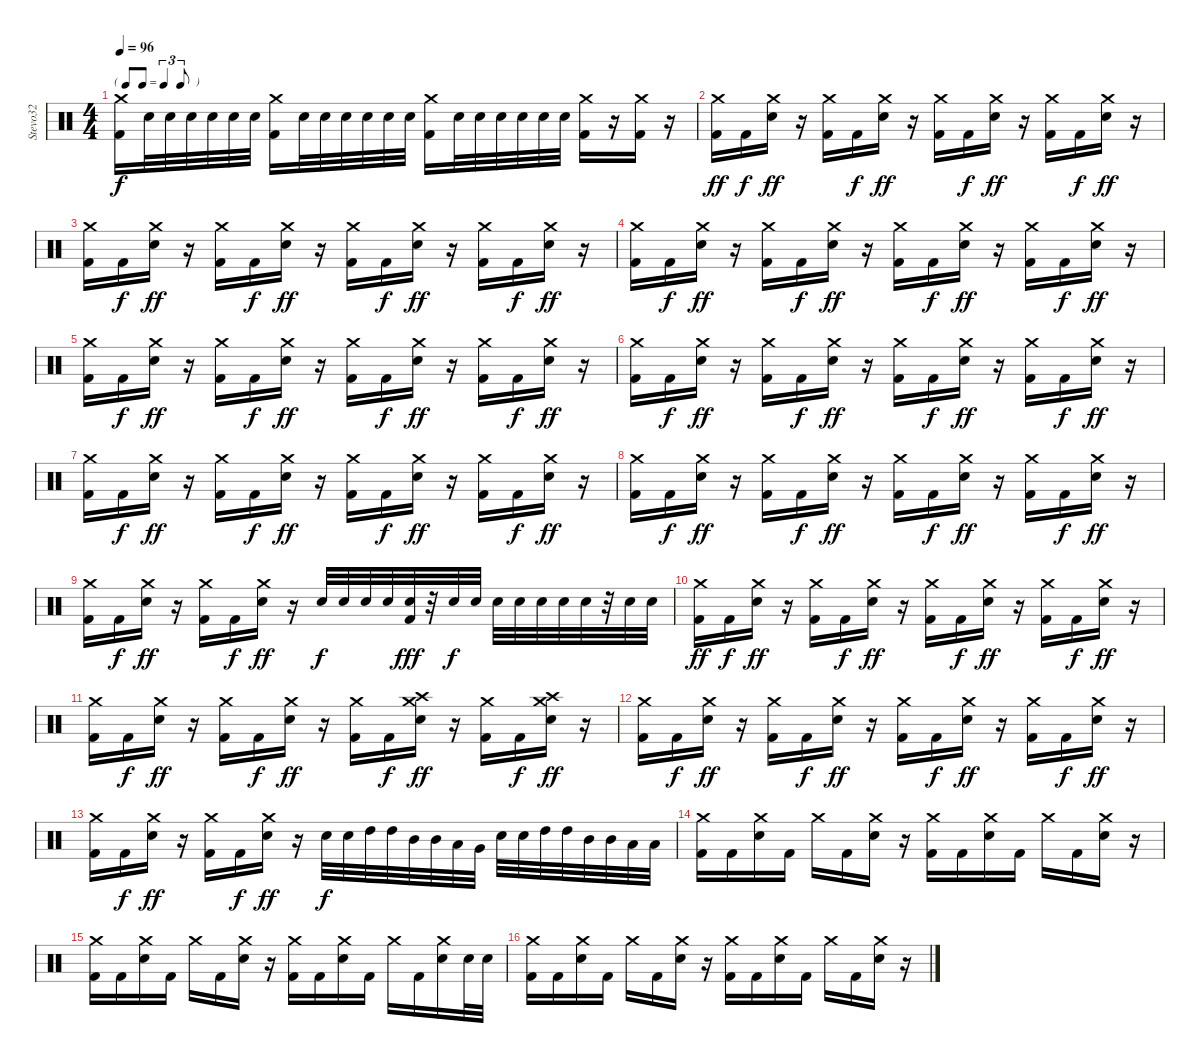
\track ("Stevo32" "Stevo32") {instrument percussion}
\staff {score}
\articulation defaults
\ts (4 4)
\tf triplet8th
\tempo 96
\clef neutral
\ks c
("Crash medium (hit)" "Kick (hit) 2").16{dy f} "Electric Snare (hit)".32 "Electric Snare (hit)".32 "Electric Snare (hit)".32 "Electric Snare (hit)".32 "Electric Snare (hit)".32 "Electric Snare (hit)".32 ("Crash medium (hit)" "Kick (hit) 2").16 "Electric Snare (hit)".32 "Electric Snare (hit)".32 "Electric Snare (hit)".32 "Electric Snare (hit)".32 "Electric Snare (hit)".32 "Electric Snare (hit)".32 ("Crash medium (hit)" "Kick (hit) 2").16 "Electric Snare (hit)".32 "Electric Snare (hit)".32 "Electric Snare (hit)".32 "Electric Snare (hit)".32 "Electric Snare (hit)".32 "Electric Snare (hit)".32 ("Kick (hit) 2" "Crash medium (hit)").16 r.16 ("Kick (hit) 2" "Crash medium (hit)").16 r.16 |
("Crash medium (hit)" "Kick (hit) 2").16{dy ff} "Kick (hit) 2".16{dy f} ("Crash medium (hit)" "Electric Snare (hit)").16{dy ff} r.16 ("Crash medium (hit)" "Kick (hit) 2").16 "Kick (hit) 2".16{dy f} ("Crash medium (hit)" "Electric Snare (hit)").16{dy ff} r.16 ("Crash medium (hit)" "Kick (hit) 2").16 "Kick (hit) 2".16{dy f} ("Crash medium (hit)" "Electric Snare (hit)").16{dy ff} r.16 ("Crash medium (hit)" "Kick (hit) 2").16 "Kick (hit) 2".16{dy f} ("Crash medium (hit)" "Electric Snare (hit)").16{dy ff} r.16 |
("Crash medium (hit)" "Kick (hit) 2").16 "Kick (hit) 2".16{dy f} ("Crash medium (hit)" "Electric Snare (hit)").16{dy ff} r.16 ("Crash medium (hit)" "Kick (hit) 2").16 "Kick (hit) 2".16{dy f} ("Crash medium (hit)" "Electric Snare (hit)").16{dy ff} r.16 ("Crash medium (hit)" "Kick (hit) 2").16 "Kick (hit) 2".16{dy f} ("Crash medium (hit)" "Electric Snare (hit)").16{dy ff} r.16 ("Crash medium (hit)" "Kick (hit) 2").16 "Kick (hit) 2".16{dy f} ("Crash medium (hit)" "Electric Snare (hit)").16{dy ff} r.16 |
("Crash medium (hit)" "Kick (hit) 2").16 "Kick (hit) 2".16{dy f} ("Crash medium (hit)" "Electric Snare (hit)").16{dy ff} r.16 ("Crash medium (hit)" "Kick (hit) 2").16 "Kick (hit) 2".16{dy f} ("Crash medium (hit)" "Electric Snare (hit)").16{dy ff} r.16 ("Crash medium (hit)" "Kick (hit) 2").16 "Kick (hit) 2".16{dy f} ("Crash medium (hit)" "Electric Snare (hit)").16{dy ff} r.16 ("Crash medium (hit)" "Kick (hit) 2").16 "Kick (hit) 2".16{dy f} ("Crash medium (hit)" "Electric Snare (hit)").16{dy ff} r.16 |
("Crash medium (hit)" "Kick (hit) 2").16 "Kick (hit) 2".16{dy f} ("Crash medium (hit)" "Electric Snare (hit)").16{dy ff} r.16 ("Crash medium (hit)" "Kick (hit) 2").16 "Kick (hit) 2".16{dy f} ("Crash medium (hit)" "Electric Snare (hit)").16{dy ff} r.16 ("Crash medium (hit)" "Kick (hit) 2").16 "Kick (hit) 2".16{dy f} ("Crash medium (hit)" "Electric Snare (hit)").16{dy ff} r.16 ("Crash medium (hit)" "Kick (hit) 2").16 "Kick (hit) 2".16{dy f} ("Crash medium (hit)" "Electric Snare (hit)").16{dy ff} r.16 |
("Crash medium (hit)" "Kick (hit) 2").16 "Kick (hit) 2".16{dy f} ("Crash medium (hit)" "Electric Snare (hit)").16{dy ff} r.16 ("Crash medium (hit)" "Kick (hit) 2").16 "Kick (hit) 2".16{dy f} ("Crash medium (hit)" "Electric Snare (hit)").16{dy ff} r.16 ("Crash medium (hit)" "Kick (hit) 2").16 "Kick (hit) 2".16{dy f} ("Crash medium (hit)" "Electric Snare (hit)").16{dy ff} r.16 ("Crash medium (hit)" "Kick (hit) 2").16 "Kick (hit) 2".16{dy f} ("Crash medium (hit)" "Electric Snare (hit)").16{dy ff} r.16 |
("Crash medium (hit)" "Kick (hit) 2").16 "Kick (hit) 2".16{dy f} ("Crash medium (hit)" "Electric Snare (hit)").16{dy ff} r.16 ("Crash medium (hit)" "Kick (hit) 2").16 "Kick (hit) 2".16{dy f} ("Crash medium (hit)" "Electric Snare (hit)").16{dy ff} r.16 ("Crash medium (hit)" "Kick (hit) 2").16 "Kick (hit) 2".16{dy f} ("Crash medium (hit)" "Electric Snare (hit)").16{dy ff} r.16 ("Crash medium (hit)" "Kick (hit) 2").16 "Kick (hit) 2".16{dy f} ("Crash medium (hit)" "Electric Snare (hit)").16{dy ff} r.16 |
("Crash medium (hit)" "Kick (hit) 2").16 "Kick (hit) 2".16{dy f} ("Crash medium (hit)" "Electric Snare (hit)").16{dy ff} r.16 ("Crash medium (hit)" "Kick (hit) 2").16 "Kick (hit) 2".16{dy f} ("Crash medium (hit)" "Electric Snare (hit)").16{dy ff} r.16 ("Crash medium (hit)" "Kick (hit) 2").16 "Kick (hit) 2".16{dy f} ("Crash medium (hit)" "Electric Snare (hit)").16{dy ff} r.16 ("Crash medium (hit)" "Kick (hit) 2").16 "Kick (hit) 2".16{dy f} ("Crash medium (hit)" "Electric Snare (hit)").16{dy ff} r.16 |
("Crash medium (hit)" "Kick (hit) 2").16 "Kick (hit) 2".16{dy f} ("Electric Snare (hit)" "Crash medium (hit)").16{dy ff} r.16 ("Crash medium (hit)" "Kick (hit) 2").16 "Kick (hit) 2".16{dy f} ("Crash medium (hit)" "Electric Snare (hit)").16{dy ff} r.16 "Electric Snare (hit)".32{dy f} "Electric Snare (hit)".32 "Electric Snare (hit)".32 "Electric Snare (hit)".32 ("Kick (hit) 2" "Electric Snare (hit)").32{dy fff} r.32 "Electric Snare (hit)".32{dy f} "Electric Snare (hit)".32 "Electric Snare (hit)".32 "Electric Snare (hit)".32 "Electric Snare (hit)".32 "Electric Snare (hit)".32 "Electric Snare (hit)".32 r.32 "Electric Snare (hit)".32 "Electric Snare (hit)".32 |
("Crash medium (hit)" "Kick (hit) 2").16{dy ff} "Kick (hit) 2".16{dy f} ("Crash medium (hit)" "Electric Snare (hit)").16{dy ff} r.16 ("Crash medium (hit)" "Kick (hit) 2").16 "Kick (hit) 2".16{dy f} ("Crash medium (hit)" "Electric Snare (hit)").16{dy ff} r.16 ("Crash medium (hit)" "Kick (hit) 2").16 "Kick (hit) 2".16{dy f} ("Crash medium (hit)" "Electric Snare (hit)").16{dy ff} r.16 ("Crash medium (hit)" "Kick (hit) 2").16 "Kick (hit) 2".16{dy f} ("Crash medium (hit)" "Electric Snare (hit)").16{dy ff} r.16 |
("Crash medium (hit)" "Kick (hit) 2").16 "Kick (hit) 2".16{dy f} ("Crash medium (hit)" "Electric Snare (hit)").16{dy ff} r.16 ("Crash medium (hit)" "Kick (hit) 2").16 "Kick (hit) 2".16{dy f} ("Crash medium (hit)" "Electric Snare (hit)").16{dy ff} r.16 ("Crash medium (hit)" "Kick (hit) 2").16 "Kick (hit) 2".16{dy f} ("Crash high (hit)" "Crash medium (hit)" "Electric Snare (hit)").16{dy ff} r.16 ("Crash medium (hit)" "Kick (hit) 2").16 "Kick (hit) 2".16{dy f} ("Crash high (hit)" "Crash medium (hit)" "Electric Snare (hit)").16{dy ff} r.16 |
("Crash medium (hit)" "Kick (hit) 2").16 "Kick (hit) 2".16{dy f} ("Crash medium (hit)" "Electric Snare (hit)").16{dy ff} r.16 ("Crash medium (hit)" "Kick (hit) 2").16 "Kick (hit) 2".16{dy f} ("Crash medium (hit)" "Electric Snare (hit)").16{dy ff} r.16 ("Crash medium (hit)" "Kick (hit) 2").16 "Kick (hit) 2".16{dy f} ("Crash medium (hit)" "Electric Snare (hit)").16{dy ff} r.16 ("Crash medium (hit)" "Kick (hit) 2").16 "Kick (hit) 2".16{dy f} ("Crash medium (hit)" "Electric Snare (hit)").16{dy ff} r.16 |
("Crash medium (hit)" "Kick (hit) 2").16 "Kick (hit) 2".16{dy f} ("Crash medium (hit)" "Electric Snare (hit)").16{dy ff} r.16 ("Crash medium (hit)" "Kick (hit) 2").16 "Kick (hit) 2".16{dy f} ("Crash medium (hit)" "Electric Snare (hit)").16{dy ff} r.16 "Electric Snare (hit)".32{dy f} "Electric Snare (hit)".32 "High Tom (hit)".32 "High Tom (hit)".32 "Mid Tom (hit)".32 "Mid Tom (hit)".32 "Low Tom (hit)".32 "Very Low Tom (hit)".32 "Electric Snare (hit)".32 "Electric Snare (hit)".32 "High Tom (hit)".32 "High Tom (hit)".32 "Mid Tom (hit)".32 "Mid Tom (hit)".32 "Low Tom (hit)".32 "Low Tom (hit)".32 |
("Crash medium (hit)" "Kick (hit) 2").16 "Kick (hit) 2".16 ("Crash medium (hit)" "Electric Snare (hit)").16 "Kick (hit) 2".16 "Crash medium (hit)".16 "Kick (hit) 2".16 ("Crash medium (hit)" "Electric Snare (hit)").16 r.16 ("Crash medium (hit)" "Kick (hit) 2").16 "Kick (hit) 2".16 ("Crash medium (hit)" "Electric Snare (hit)").16 "Kick (hit) 2".16 "Crash medium (hit)".16 "Kick (hit) 2".16 ("Crash medium (hit)" "Electric Snare (hit)").16 r.16 |
("Crash medium (hit)" "Kick (hit) 2").16 "Kick (hit) 2".16 ("Crash medium (hit)" "Electric Snare (hit)").16 "Kick (hit) 2".16 "Crash medium (hit)".16 "Kick (hit) 2".16 ("Crash medium (hit)" "Electric Snare (hit)").16 r.16 ("Crash medium (hit)" "Kick (hit) 2").16 "Kick (hit) 2".16 ("Crash medium (hit)" "Electric Snare (hit)").16 "Kick (hit) 2".16 "Crash medium (hit)".16 "Kick (hit) 2".16 ("Crash medium (hit)" "Electric Snare (hit)").16 "Electric Snare (hit)".32 "Electric Snare (hit)".32 |
("Crash medium (hit)" "Kick (hit) 2").16 "Kick (hit) 2".16 ("Crash medium (hit)" "Electric Snare (hit)").16 "Kick (hit) 2".16 "Crash medium (hit)".16 "Kick (hit) 2".16 ("Crash medium (hit)" "Electric Snare (hit)").16 r.16 ("Crash medium (hit)" "Kick (hit) 2").16 "Kick (hit) 2".16 ("Crash medium (hit)" "Electric Snare (hit)").16 "Kick (hit) 2".16 "Crash medium (hit)".16 "Kick (hit) 2".16 ("Crash medium (hit)" "Electric Snare (hit)").16 r.16
